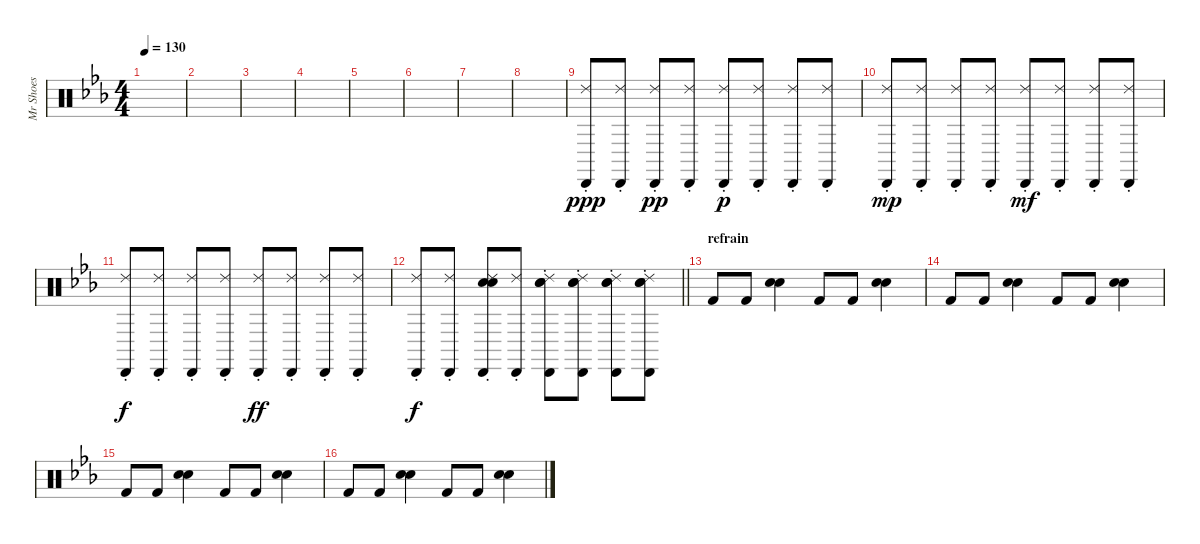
\track ("Mr Shoes " "Mr Shoes ") {instrument percussion}
\staff {score}
\articulation defaults
\ts (4 4)
\tempo 130
\clef neutral
\ks eb
|
|
|
|
|
|
|
|
("Ride (choke) 2" "Cabasa (hit)").8{dy ppp} ("Ride (choke) 2" "Cabasa (hit)").8 ("Ride (choke) 2" "Cabasa (hit)").8{dy pp} ("Ride (choke) 2" "Cabasa (hit)").8 ("Ride (choke) 2" "Cabasa (hit)").8{dy p} ("Ride (choke) 2" "Cabasa (hit)").8 ("Ride (choke) 2" "Cabasa (hit)").8 ("Ride (choke) 2" "Cabasa (hit)").8 |
("Ride (choke) 2" "Cabasa (hit)").8{dy mp} ("Ride (choke) 2" "Cabasa (hit)").8 ("Ride (choke) 2" "Cabasa (hit)").8 ("Ride (choke) 2" "Cabasa (hit)").8 ("Ride (choke) 2" "Cabasa (hit)").8{dy mf} ("Ride (choke) 2" "Cabasa (hit)").8 ("Ride (choke) 2" "Cabasa (hit)").8 ("Ride (choke) 2" "Cabasa (hit)").8 |
("Ride (choke) 2" "Cabasa (hit)").8{dy f} ("Ride (choke) 2" "Cabasa (hit)").8 ("Ride (choke) 2" "Cabasa (hit)").8 ("Ride (choke) 2" "Cabasa (hit)").8 ("Ride (choke) 2" "Cabasa (hit)").8{dy ff} ("Ride (choke) 2" "Cabasa (hit)").8 ("Ride (choke) 2" "Cabasa (hit)").8 ("Ride (choke) 2" "Cabasa (hit)").8 |
\barLineRight lightlight
("Ride (choke) 2" "Cabasa (hit)").8{dy f} ("Ride (choke) 2" "Cabasa (hit)").8 ("Ride (choke) 2" "Cabasa (hit)" "Electric Snare (hit)" "Snare (hit) 2").8 ("Ride (choke) 2" "Cabasa (hit)").8 ("Ride (choke) 2" "Cabasa (hit)" "Electric Snare (hit)" "Snare (hit) 2").8 ("Ride (choke) 2" "Cabasa (hit)" "Electric Snare (hit)" "Snare (hit) 2").8 ("Ride (choke) 2" "Cabasa (hit)" "Electric Snare (hit)" "Snare (hit) 2").8 ("Ride (choke) 2" "Cabasa (hit)" "Electric Snare (hit)" "Snare (hit) 2").8 |
\section ("" "refrain")
"Kick (hit) 2".8 "Kick (hit) 2".8 ("Electric Snare (hit)" "Snare (hit) 2").4 "Kick (hit) 2".8 "Kick (hit) 2".8 ("Electric Snare (hit)" "Snare (hit) 2").4 |
"Kick (hit) 2".8 "Kick (hit) 2".8 ("Electric Snare (hit)" "Snare (hit) 2").4 "Kick (hit) 2".8 "Kick (hit) 2".8 ("Electric Snare (hit)" "Snare (hit) 2").4 |
"Kick (hit) 2".8 "Kick (hit) 2".8 ("Electric Snare (hit)" "Snare (hit) 2").4 "Kick (hit) 2".8 "Kick (hit) 2".8 ("Electric Snare (hit)" "Snare (hit) 2").4 |
"Kick (hit) 2".8 "Kick (hit) 2".8 ("Electric Snare (hit)" "Snare (hit) 2").4 "Kick (hit) 2".8 "Kick (hit) 2".8 ("Electric Snare (hit)" "Snare (hit) 2").4
